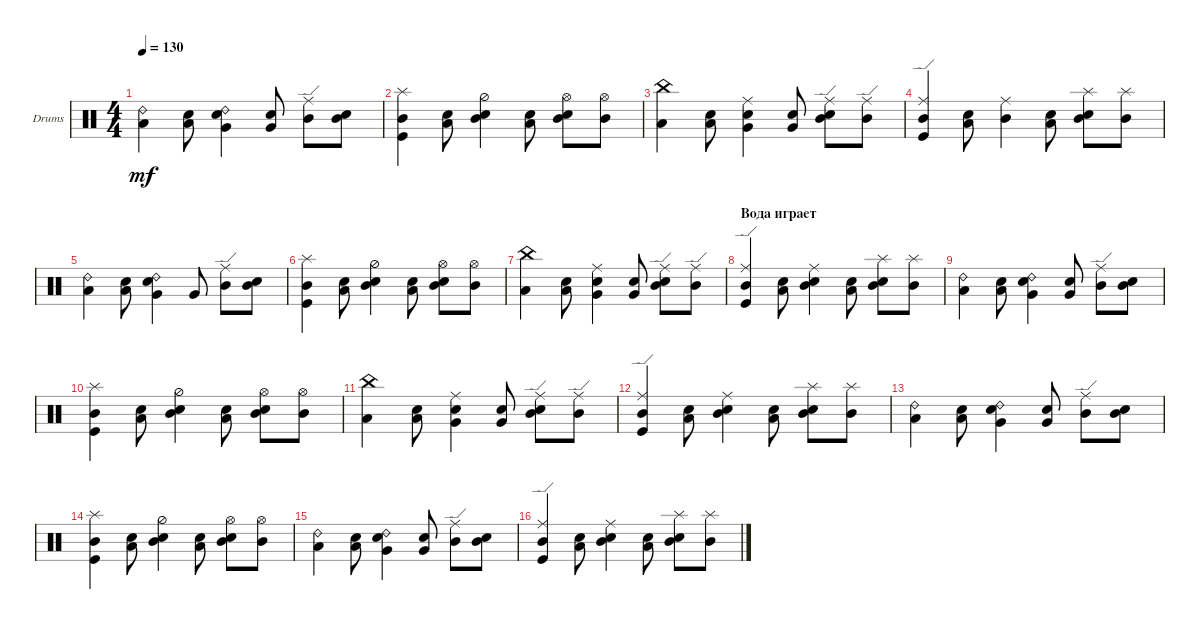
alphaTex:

\defaultSystemsLayout 4
\bracketExtendMode groupsimilarinstruments
\firstSystemTrackNameOrientation horizontal
\otherSystemsTrackNameOrientation horizontal
\track ("Drumkit" "Drums") {instrument percussion}
\staff {score}
\articulation defaults
\ts (4 4)
\tempo 130
\clef neutral
\ks c
("Low Tom (hit)" "Ride (bell) 2").4{dy mf} ("Low Tom (hit)" "Snare (hit) 2").8 ("Very Low Tom (hit)" "Snare (hit) 2" "Ride (bell) 2").4 ("Very Low Tom (hit)" "Snare (hit) 2").8 ("Mid Tom (hit)" "Ride (edge)").8 ("Mid Tom (hit)" "Snare (hit) 2").8 |
("Mid Tom (hit)" "Kick (hit)" "Splash (hit)").4 ("Low Tom (hit)" "Snare (hit) 2").8 ("Mid Tom (hit)" "Snare (hit) 2" "Hi-Hat (half)").4 ("Low Tom (hit)" "Snare (hit) 2").8 ("Mid Tom (hit)" "Snare (hit) 2" "Hi-Hat (open)").8 ("Mid Tom (hit)" "Hi-Hat (open)").8 |
("Low Tom (hit)" "China (hit)").4 ("Low Tom (hit)" "Snare (hit) 2").8 ("Very Low Tom (hit)" "Snare (hit) 2" "Ride (middle)").4 ("Very Low Tom (hit)" "Snare (hit) 2").8 ("Mid Tom (hit)" "Snare (hit) 2" "Ride (edge)").8 ("Mid Tom (hit)" "Ride (edge)").8 |
("Mid Tom (hit)" "Kick (hit)" "Ride (edge)").4 ("Low Tom (hit)" "Snare (hit) 2").8 ("Mid Tom (hit)" "Ride (middle)").4 ("Low Tom (hit)" "Snare (hit) 2").8 ("Mid Tom (hit)" "Snare (hit) 2" "Splash (hit)").8 ("Mid Tom (hit)" "Splash (hit)").8 |
("Low Tom (hit)" "Ride (bell) 2").4 ("Low Tom (hit)" "Snare (hit) 2").8 ("Very Low Tom (hit)" "Snare (hit) 2" "Ride (bell) 2").4 "Very Low Tom (hit)".8 ("Mid Tom (hit)" "Ride (edge)").8 ("Mid Tom (hit)" "Snare (hit) 2").8 |
("Mid Tom (hit)" "Kick (hit)" "Splash (hit)").4 ("Low Tom (hit)" "Snare (hit) 2").8 ("Mid Tom (hit)" "Snare (hit) 2" "Hi-Hat (half)").4 ("Low Tom (hit)" "Snare (hit) 2").8 ("Mid Tom (hit)" "Snare (hit) 2" "Hi-Hat (open)").8 ("Mid Tom (hit)" "Hi-Hat (open)").8 |
("Low Tom (hit)" "China (hit)").4 ("Low Tom (hit)" "Snare (hit) 2").8 ("Very Low Tom (hit)" "Snare (hit) 2" "Ride (middle)").4 ("Very Low Tom (hit)" "Snare (hit) 2").8 ("Mid Tom (hit)" "Snare (hit) 2" "Ride (edge)").8 ("Mid Tom (hit)" "Ride (edge)").8 |
\section ("" "Вода играет")
("Mid Tom (hit)" "Kick (hit)" "Ride (edge)").4 ("Low Tom (hit)" "Snare (hit) 2").8 ("Mid Tom (hit)" "Snare (hit) 2" "Ride (middle)").4 ("Low Tom (hit)" "Snare (hit) 2").8 ("Mid Tom (hit)" "Snare (hit) 2" "Splash (hit)").8 ("Mid Tom (hit)" "Splash (hit)").8 |
("Low Tom (hit)" "Ride (bell) 2").4 ("Low Tom (hit)" "Snare (hit) 2").8 ("Very Low Tom (hit)" "Snare (hit) 2" "Ride (bell) 2").4 ("Very Low Tom (hit)" "Snare (hit) 2").8 ("Mid Tom (hit)" "Ride (edge)").8 ("Mid Tom (hit)" "Snare (hit) 2").8 |
("Mid Tom (hit)" "Kick (hit)" "Splash (hit)").4 ("Low Tom (hit)" "Snare (hit) 2").8 ("Mid Tom (hit)" "Snare (hit) 2" "Hi-Hat (half)").4 ("Low Tom (hit)" "Snare (hit) 2").8 ("Mid Tom (hit)" "Snare (hit) 2" "Hi-Hat (open)").8 ("Mid Tom (hit)" "Hi-Hat (open)").8 |
("Low Tom (hit)" "China (hit)").4 ("Low Tom (hit)" "Snare (hit) 2").8 ("Very Low Tom (hit)" "Snare (hit) 2" "Ride (middle)").4 ("Very Low Tom (hit)" "Snare (hit) 2").8 ("Mid Tom (hit)" "Snare (hit) 2" "Ride (edge)").8 ("Mid Tom (hit)" "Ride (edge)").8 |
("Mid Tom (hit)" "Kick (hit)" "Ride (edge)").4 ("Low Tom (hit)" "Snare (hit) 2").8 ("Mid Tom (hit)" "Snare (hit) 2" "Ride (middle)").4 ("Low Tom (hit)" "Snare (hit) 2").8 ("Mid Tom (hit)" "Snare (hit) 2" "Splash (hit)").8 ("Mid Tom (hit)" "Splash (hit)").8 |
("Low Tom (hit)" "Ride (bell) 2").4 ("Low Tom (hit)" "Snare (hit) 2").8 ("Very Low Tom (hit)" "Snare (hit) 2" "Ride (bell) 2").4 ("Very Low Tom (hit)" "Snare (hit) 2").8 ("Mid Tom (hit)" "Ride (edge)").8 ("Mid Tom (hit)" "Snare (hit) 2").8 |
("Mid Tom (hit)" "Kick (hit)" "Splash (hit)").4 ("Low Tom (hit)" "Snare (hit) 2").8 ("Mid Tom (hit)" "Snare (hit) 2" "Hi-Hat (half)").4 ("Low Tom (hit)" "Snare (hit) 2").8 ("Mid Tom (hit)" "Snare (hit) 2" "Hi-Hat (open)").8 ("Mid Tom (hit)" "Hi-Hat (open)").8 |
("Low Tom (hit)" "Ride (bell) 2").4 ("Low Tom (hit)" "Snare (hit) 2").8 ("Very Low Tom (hit)" "Snare (hit) 2" "Ride (bell) 2").4 ("Very Low Tom (hit)" "Snare (hit) 2").8 ("Mid Tom (hit)" "Ride (edge)").8 ("Mid Tom (hit)" "Snare (hit) 2").8 |
("Mid Tom (hit)" "Kick (hit)" "Ride (edge)").4 ("Low Tom (hit)" "Snare (hit) 2").8 ("Mid Tom (hit)" "Snare (hit) 2" "Ride (middle)").4 ("Low Tom (hit)" "Snare (hit) 2").8 ("Mid Tom (hit)" "Snare (hit) 2" "Splash (hit)").8 ("Mid Tom (hit)" "Splash (hit)").8
